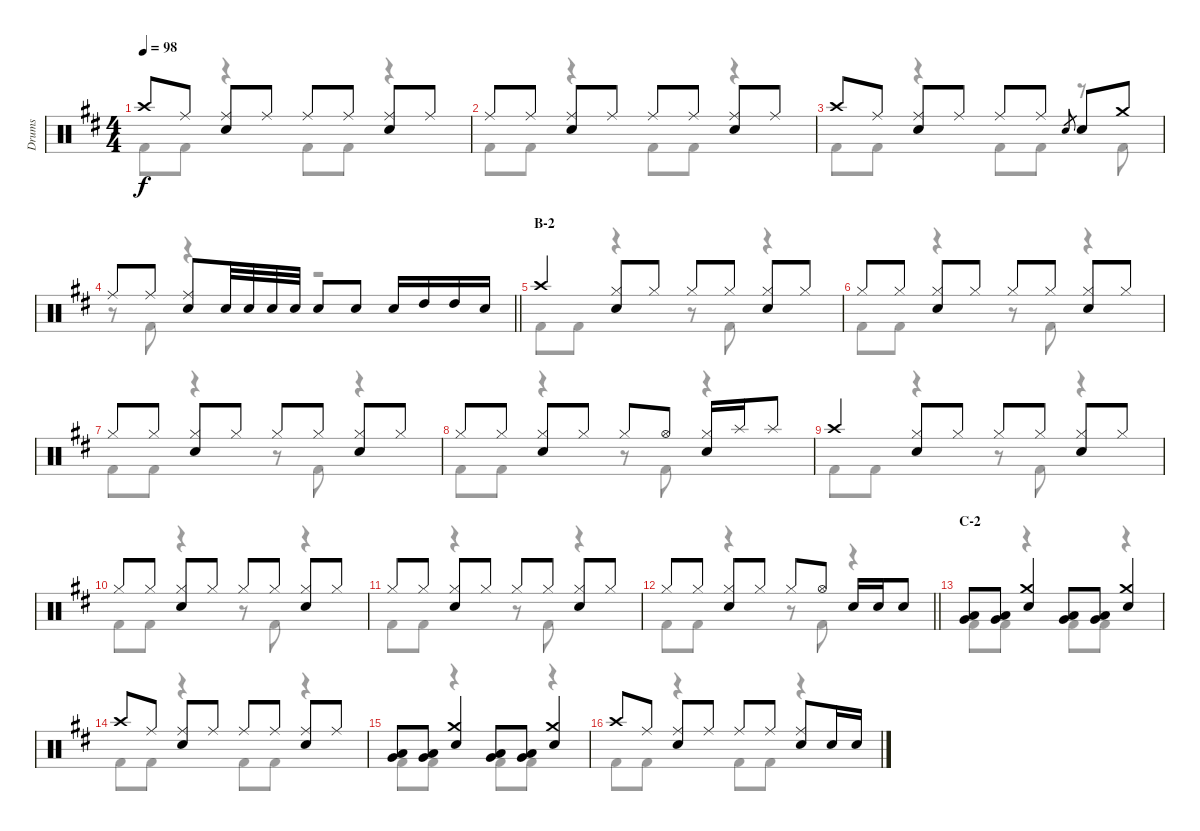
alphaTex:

\track ("Drums" "Drums") {instrument percussion}
\staff {score}
\articulation defaults
\voice
\ts (4 4)
\tempo 98
\clef neutral
\ks d "Crash high (hit)".8{dy f} "Ride (middle)".8
("Ride (middle)" "Snare (hit) 2").8 "Ride (middle)".8 "Ride (middle)".8 "Ride (middle)".8 ("Ride (middle)" "Snare (hit) 2").8 "Ride (middle)".8 |
"Ride (middle)".8 "Ride (middle)".8 ("Ride (middle)" "Snare (hit) 2").8 "Ride (middle)".8 "Ride (middle)".8 "Ride (middle)".8 ("Ride (middle)" "Snare (hit) 2").8 "Ride (middle)".8 |
"Crash high (hit)".8 "Ride (middle)".8 ("Ride (middle)" "Snare (hit) 2").8 "Ride (middle)".8 "Ride (middle)".8 "Ride (middle)".8 "Snare (hit) 2".8{gr} "Snare (hit) 2".8 "Crash medium (hit)".8 |
\barLineRight lightlight "Ride (middle)".8 "Ride (middle)".8
("Ride (middle)" "Snare (hit) 2").8 "Snare (hit) 2".32 "Snare (hit) 2".32 "Snare (hit) 2".32 "Snare (hit) 2".32 "Snare (hit) 2".8 "Snare (hit) 2".8 "Snare (hit) 2".16 "High Tom (hit)".16 "High Tom (hit)".16 "Snare (hit) 2".16 |
\section ("" "B-2")
"Crash high (hit)".4 ("Hi-Hat (closed)" "Snare (hit) 2").8 "Hi-Hat (closed)".8 "Hi-Hat (closed)".8 "Hi-Hat (closed)".8 ("Hi-Hat (closed)" "Snare (hit) 2").8 "Hi-Hat (closed)".8 |
"Hi-Hat (closed)".8 "Hi-Hat (closed)".8 ("Hi-Hat (closed)" "Snare (hit) 2").8 "Hi-Hat (closed)".8 "Hi-Hat (closed)".8 "Hi-Hat (closed)".8 ("Hi-Hat (closed)" "Snare (hit) 2").8 "Hi-Hat (closed)".8 |
"Hi-Hat (closed)".8 "Hi-Hat (closed)".8 ("Hi-Hat (closed)" "Snare (hit) 2").8 "Hi-Hat (closed)".8 "Hi-Hat (closed)".8 "Hi-Hat (closed)".8 ("Hi-Hat (closed)" "Snare (hit) 2").8 "Hi-Hat (closed)".8 |
"Hi-Hat (closed)".8 "Hi-Hat (closed)".8 ("Hi-Hat (closed)" "Snare (hit) 2").8 "Hi-Hat (closed)".8 "Hi-Hat (closed)".8 "Hi-Hat (open)".8 ("Hi-Hat (closed)" "Snare (hit) 2").16 "Splash (hit)".16 "Splash (hit)".8 |
"Crash high (hit)".4 ("Hi-Hat (closed)" "Snare (hit) 2").8 "Hi-Hat (closed)".8 "Hi-Hat (closed)".8 "Hi-Hat (closed)".8 ("Hi-Hat (closed)" "Snare (hit) 2").8 "Hi-Hat (closed)".8 |
"Hi-Hat (closed)".8 "Hi-Hat (closed)".8 ("Hi-Hat (closed)" "Snare (hit) 2").8 "Hi-Hat (closed)".8 "Hi-Hat (closed)".8 "Hi-Hat (closed)".8 ("Hi-Hat (closed)" "Snare (hit) 2").8 "Hi-Hat (closed)".8 |
"Hi-Hat (closed)".8 "Hi-Hat (closed)".8 ("Hi-Hat (closed)" "Snare (hit) 2").8 "Hi-Hat (closed)".8 "Hi-Hat (closed)".8 "Hi-Hat (closed)".8 ("Hi-Hat (closed)" "Snare (hit) 2").8 "Hi-Hat (closed)".8 |
\barLineRight lightlight "Hi-Hat (closed)".8 "Hi-Hat (closed)".8
("Hi-Hat (closed)" "Snare (hit) 2").8 "Hi-Hat (closed)".8 "Hi-Hat (closed)".8 "Hi-Hat (open)".8 "Snare (hit) 2".16 "Snare (hit) 2".16 "Snare (hit)".8 |
\section ("" "C-2")
("Low Tom (hit)" "Very Low Tom (hit)").8 ("Low Tom (hit)" "Very Low Tom (hit)").8 ("Crash medium (hit)" "Snare (hit) 2").4 ("Low Tom (hit)" "Very Low Tom (hit)").8 ("Low Tom (hit)" "Very Low Tom (hit)").8 ("Crash medium (hit)" "Snare (hit) 2").4 |
"Crash high (hit)".8 "Ride (middle)".8 ("Ride (middle)" "Snare (hit) 2").8 "Ride (middle)".8 "Ride (middle)".8 "Ride (middle)".8 ("Ride (middle)" "Snare (hit) 2").8 "Ride (middle)".8 |
("Low Tom (hit)" "Very Low Tom (hit)").8 ("Low Tom (hit)" "Very Low Tom (hit)").8 ("Crash medium (hit)" "Snare (hit) 2").4 ("Low Tom (hit)" "Very Low Tom (hit)").8 ("Low Tom (hit)" "Very Low Tom (hit)").8 ("Crash medium (hit)" "Snare (hit) 2").4 |
"Crash high (hit)".8 "Ride (middle)".8 ("Ride (middle)" "Snare (hit) 2").8 "Ride (middle)".8 "Ride (middle)".8 "Ride (middle)".8 ("Ride (middle)" "Snare (hit) 2").8 "Snare (hit) 2".16 "Snare (hit) 2".16
\voice
\clef neutral
\ottava regular
\simile none
\ks d "Kick (hit) 2".8{dy f} "Kick (hit) 2".8
r.4 "Kick (hit) 2".8 "Kick (hit) 2".8 r.4 |
"Kick (hit) 2".8 "Kick (hit) 2".8 r.4 "Kick (hit) 2".8 "Kick (hit) 2".8 r.4 |
"Kick (hit) 2".8 "Kick (hit) 2".8 r.4 "Kick (hit) 2".8 "Kick (hit) 2".8 r.8 "Kick (hit) 2".8 |
\barLineRight lightlight
r.8 "Kick (hit) 2".8 r.4 r.2 |
"Kick (hit) 2".8 "Kick (hit) 2".8 r.4 r.8 "Kick (hit) 2".8 r.4 |
"Kick (hit) 2".8 "Kick (hit) 2".8 r.4 r.8 "Kick (hit) 2".8 r.4 |
"Kick (hit) 2".8 "Kick (hit) 2".8 r.4 r.8 "Kick (hit) 2".8 r.4 |
"Kick (hit) 2".8 "Kick (hit) 2".8 r.4 r.8 "Kick (hit) 2".8 r.4 |
"Kick (hit) 2".8 "Kick (hit) 2".8 r.4 r.8 "Kick (hit) 2".8 r.4 |
"Kick (hit) 2".8 "Kick (hit) 2".8 r.4 r.8 "Kick (hit) 2".8 r.4 |
"Kick (hit) 2".8 "Kick (hit) 2".8 r.4 r.8 "Kick (hit) 2".8 r.4 |
\barLineRight lightlight "Kick (hit) 2".8 "Kick (hit) 2".8
r.4 r.8 "Kick (hit) 2".8 r.4 |
"Kick (hit) 2".8 "Kick (hit) 2".8 r.4 "Kick (hit) 2".8 "Kick (hit) 2".8 r.4 |
"Kick (hit) 2".8 "Kick (hit) 2".8 r.4 "Kick (hit) 2".8 "Kick (hit) 2".8 r.4 |
"Kick (hit) 2".8 "Kick (hit) 2".8 r.4 "Kick (hit) 2".8 "Kick (hit) 2".8 r.4 |
"Kick (hit) 2".8 "Kick (hit) 2".8 r.4 "Kick (hit) 2".8 "Kick (hit) 2".8 r.4
